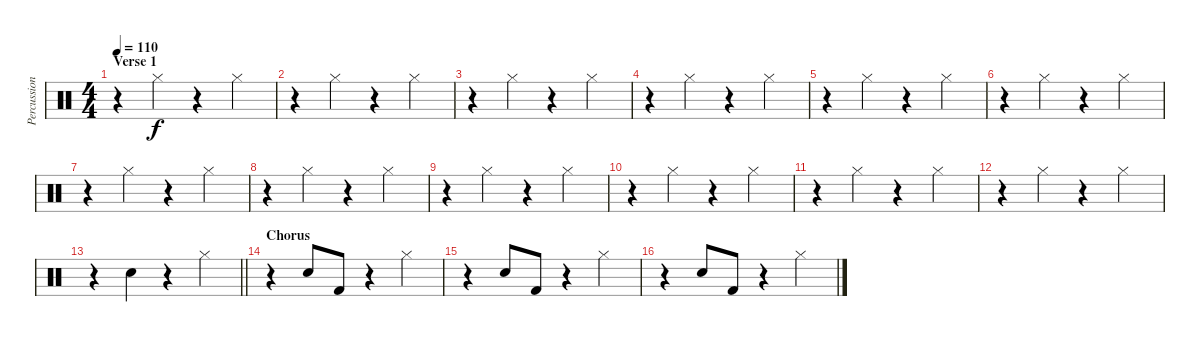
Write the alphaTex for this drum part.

\track ("Percussion" "Percussion") {instrument percussion}
\staff {score}
\articulation defaults
\ts (4 4)
\section ("" "Verse 1")
\tempo 110
\clef neutral
\ks c
r.4{dy f} "Hi-Hat (closed)".4 r.4 "Hi-Hat (closed)".4 |
r.4 "Hi-Hat (closed)".4 r.4 "Hi-Hat (closed)".4 |
r.4 "Hi-Hat (closed)".4 r.4 "Hi-Hat (closed)".4 |
r.4 "Hi-Hat (closed)".4 r.4 "Hi-Hat (closed)".4 |
r.4 "Hi-Hat (closed)".4 r.4 "Hi-Hat (closed)".4 |
r.4 "Hi-Hat (closed)".4 r.4 "Hi-Hat (closed)".4 |
r.4 "Hi-Hat (closed)".4 r.4 "Hi-Hat (closed)".4 |
r.4 "Hi-Hat (closed)".4 r.4 "Hi-Hat (closed)".4 |
r.4 "Hi-Hat (closed)".4 r.4 "Hi-Hat (closed)".4 |
r.4 "Hi-Hat (closed)".4 r.4 "Hi-Hat (closed)".4 |
r.4 "Hi-Hat (closed)".4 r.4 "Hi-Hat (closed)".4 |
r.4 "Hi-Hat (closed)".4 r.4 "Hi-Hat (closed)".4 |
\barLineRight lightlight
r.4 "Snare (hit) 2".4 r.4 "Hi-Hat (closed)".4 |
\section ("" "Chorus")
r.4 "Snare (hit) 2".8 "Kick (hit) 2".8 r.4 "Hi-Hat (closed)".4 |
r.4 "Snare (hit) 2".8 "Kick (hit) 2".8 r.4 "Hi-Hat (closed)".4 |
r.4 "Snare (hit) 2".8 "Kick (hit) 2".8 r.4 "Hi-Hat (closed)".4
